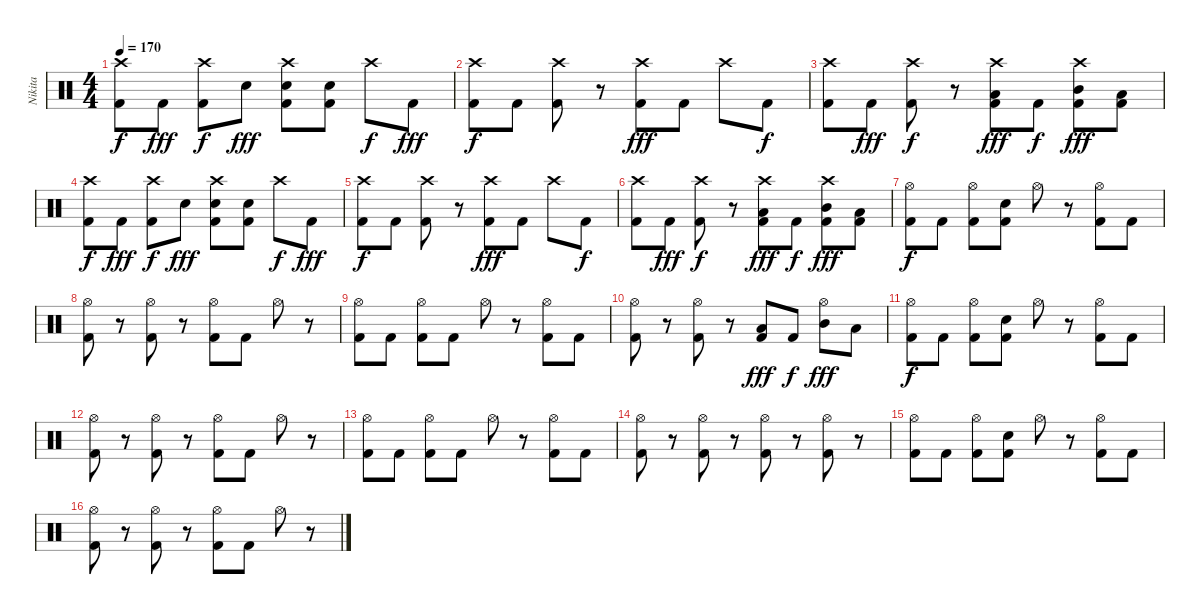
\track ("Nikita" "Nikita") {instrument percussion}
\staff {score}
\articulation defaults
\ts (4 4)
\tempo 170
\clef neutral
\ks c
("Crash high (hit)" "Kick (hit) 2").8{dy f} "Kick (hit) 2".8{dy fff} ("Crash high (hit)" "Kick (hit) 2").8{dy f} "Electric Snare (hit)".8{dy fff} ("Crash high (hit)" "Electric Snare (hit)" "Kick (hit) 2").8 ("Electric Snare (hit)" "Kick (hit) 2").8 "Crash high (hit)".8{dy f} "Kick (hit) 2".8{dy fff} |
("Crash high (hit)" "Kick (hit) 2").8{dy f} "Kick (hit) 2".8 ("Crash high (hit)" "Kick (hit) 2").8 r.8 ("Crash high (hit)" "Kick (hit) 2").8{dy fff} "Kick (hit) 2".8 "Crash high (hit)".8 "Kick (hit) 2".8{dy f} |
("Crash high (hit)" "Kick (hit) 2").8 "Kick (hit) 2".8{dy fff} ("Crash high (hit)" "Kick (hit) 2").8{dy f} r.8 ("Crash high (hit)" "Low Tom (hit)" "Kick (hit) 2").8{dy fff} "Kick (hit) 2".8{dy f} ("Crash high (hit)" "Mid Tom (hit)" "Kick (hit) 2").8{dy fff} ("Low Tom (hit)" "Kick (hit) 2").8 |
("Crash high (hit)" "Kick (hit) 2").8{dy f} "Kick (hit) 2".8{dy fff} ("Crash high (hit)" "Kick (hit) 2").8{dy f} "Electric Snare (hit)".8{dy fff} ("Crash high (hit)" "Electric Snare (hit)" "Kick (hit) 2").8 ("Electric Snare (hit)" "Kick (hit) 2").8 "Crash high (hit)".8{dy f} "Kick (hit) 2".8{dy fff} |
("Crash high (hit)" "Kick (hit) 2").8{dy f} "Kick (hit) 2".8 ("Crash high (hit)" "Kick (hit) 2").8 r.8 ("Crash high (hit)" "Kick (hit) 2").8{dy fff} "Kick (hit) 2".8 "Crash high (hit)".8 "Kick (hit) 2".8{dy f} |
("Crash high (hit)" "Kick (hit) 2").8 "Kick (hit) 2".8{dy fff} ("Crash high (hit)" "Kick (hit) 2").8{dy f} r.8 ("Crash high (hit)" "Low Tom (hit)" "Kick (hit) 2").8{dy fff} "Kick (hit) 2".8{dy f} ("Crash high (hit)" "Mid Tom (hit)" "Kick (hit) 2").8{dy fff} ("Low Tom (hit)" "Kick (hit) 2").8 |
("Hi-Hat (open)" "Kick (hit) 2").8{dy f} "Kick (hit) 2".8 ("Hi-Hat (open)" "Kick (hit) 2").8 ("Electric Snare (hit)" "Kick (hit) 2").8 "Hi-Hat (open)".8 r.8 ("Hi-Hat (open)" "Kick (hit) 2").8 "Kick (hit) 2".8 |
("Hi-Hat (open)" "Kick (hit) 2").8 r.8 ("Hi-Hat (open)" "Kick (hit) 2").8 r.8 ("Hi-Hat (open)" "Kick (hit) 2").8 "Kick (hit) 2".8 "Hi-Hat (open)".8 r.8 |
("Hi-Hat (open)" "Kick (hit) 2").8 "Kick (hit) 2".8 ("Hi-Hat (open)" "Kick (hit) 2").8 "Kick (hit) 2".8 "Hi-Hat (open)".8 r.8 ("Hi-Hat (open)" "Kick (hit) 2").8 "Kick (hit) 2".8 |
("Hi-Hat (open)" "Kick (hit) 2").8 r.8 ("Hi-Hat (open)" "Kick (hit) 2").8 r.8 ("Low Tom (hit)" "Kick (hit) 2").8{dy fff} "Kick (hit) 2".8{dy f} ("Hi-Hat (open)" "Mid Tom (hit)").8{dy fff} "Low Tom (hit)".8 |
("Hi-Hat (open)" "Kick (hit) 2").8{dy f} "Kick (hit) 2".8 ("Hi-Hat (open)" "Kick (hit) 2").8 ("Electric Snare (hit)" "Kick (hit) 2").8 "Hi-Hat (open)".8 r.8 ("Hi-Hat (open)" "Kick (hit) 2").8 "Kick (hit) 2".8 |
("Hi-Hat (open)" "Kick (hit) 2").8 r.8 ("Hi-Hat (open)" "Kick (hit) 2").8 r.8 ("Hi-Hat (open)" "Kick (hit) 2").8 "Kick (hit) 2".8 "Hi-Hat (open)".8 r.8 |
("Hi-Hat (open)" "Kick (hit) 2").8 "Kick (hit) 2".8 ("Hi-Hat (open)" "Kick (hit) 2").8 "Kick (hit) 2".8 "Hi-Hat (open)".8 r.8 ("Hi-Hat (open)" "Kick (hit) 2").8 "Kick (hit) 2".8 |
("Hi-Hat (open)" "Kick (hit) 2").8 r.8 ("Hi-Hat (open)" "Kick (hit) 2").8 r.8 ("Hi-Hat (open)" "Kick (hit) 2").8 r.8 ("Hi-Hat (open)" "Kick (hit) 2").8 r.8 |
("Hi-Hat (open)" "Kick (hit) 2").8 "Kick (hit) 2".8 ("Hi-Hat (open)" "Kick (hit) 2").8 ("Electric Snare (hit)" "Kick (hit) 2").8 "Hi-Hat (open)".8 r.8 ("Hi-Hat (open)" "Kick (hit) 2").8 "Kick (hit) 2".8 |
("Hi-Hat (open)" "Kick (hit) 2").8 r.8 ("Hi-Hat (open)" "Kick (hit) 2").8 r.8 ("Hi-Hat (open)" "Kick (hit) 2").8 "Kick (hit) 2".8 "Hi-Hat (open)".8 r.8
